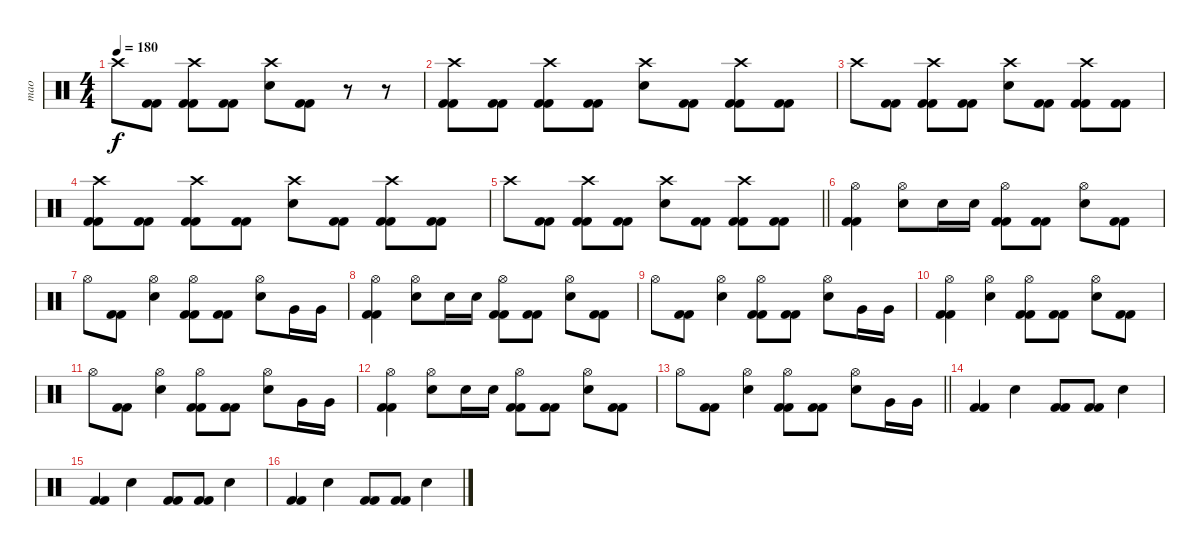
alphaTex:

\track ("mao" "mao") {instrument percussion}
\staff {score}
\articulation defaults
\ts (4 4)
\tempo 180
\clef neutral
\ks c "Crash high (hit)".8{dy f}
("Kick (hit) 2" "Kick (hit) 2").8 ("Crash high (hit)" "Kick (hit) 2" "Kick (hit) 2").8 ("Kick (hit) 2" "Kick (hit) 2").8 ("Crash high (hit)" "Electric Snare (hit)").8 ("Kick (hit) 2" "Kick (hit) 2").8 r.8 r.8 |
("Crash high (hit)" "Kick (hit) 2" "Kick (hit) 2").8 ("Kick (hit) 2" "Kick (hit) 2").8 ("Crash high (hit)" "Kick (hit) 2" "Kick (hit) 2").8 ("Kick (hit) 2" "Kick (hit) 2").8 ("Crash high (hit)" "Electric Snare (hit)").8 ("Kick (hit) 2" "Kick (hit) 2").8 ("Crash high (hit)" "Kick (hit) 2" "Kick (hit) 2").8 ("Kick (hit) 2" "Kick (hit) 2").8 |
"Crash high (hit)".8 ("Kick (hit) 2" "Kick (hit) 2").8 ("Crash high (hit)" "Kick (hit) 2" "Kick (hit) 2").8 ("Kick (hit) 2" "Kick (hit) 2").8 ("Crash high (hit)" "Electric Snare (hit)").8 ("Kick (hit) 2" "Kick (hit) 2").8 ("Crash high (hit)" "Kick (hit) 2" "Kick (hit) 2").8 ("Kick (hit) 2" "Kick (hit) 2").8 |
("Crash high (hit)" "Kick (hit) 2" "Kick (hit) 2").8 ("Kick (hit) 2" "Kick (hit) 2").8 ("Crash high (hit)" "Kick (hit) 2" "Kick (hit) 2").8 ("Kick (hit) 2" "Kick (hit) 2").8 ("Crash high (hit)" "Electric Snare (hit)").8 ("Kick (hit) 2" "Kick (hit) 2").8 ("Crash high (hit)" "Kick (hit) 2" "Kick (hit) 2").8 ("Kick (hit) 2" "Kick (hit) 2").8 |
\barLineRight lightlight "Crash high (hit)".8
("Kick (hit) 2" "Kick (hit) 2").8 ("Crash high (hit)" "Kick (hit) 2" "Kick (hit) 2").8 ("Kick (hit) 2" "Kick (hit) 2").8 ("Crash high (hit)" "Electric Snare (hit)").8 ("Kick (hit) 2" "Kick (hit) 2").8 ("Crash high (hit)" "Kick (hit) 2" "Kick (hit) 2").8 ("Kick (hit) 2" "Kick (hit) 2").8 |
("Hi-Hat (open)" "Kick (hit) 2" "Kick (hit) 2").4 ("Hi-Hat (open)" "Electric Snare (hit)").8 "Electric Snare (hit)".16 "Electric Snare (hit)".16 ("Hi-Hat (open)" "Kick (hit) 2" "Kick (hit) 2").8 ("Kick (hit) 2" "Kick (hit) 2").8 ("Hi-Hat (open)" "Electric Snare (hit)").8 ("Kick (hit) 2" "Kick (hit) 2").8 |
"Hi-Hat (open)".8 ("Kick (hit) 2" "Kick (hit) 2").8 ("Hi-Hat (open)" "Electric Snare (hit)").4 ("Hi-Hat (open)" "Kick (hit) 2" "Kick (hit) 2").8 ("Kick (hit) 2" "Kick (hit) 2").8 ("Hi-Hat (open)" "Electric Snare (hit)").8 "Very Low Tom (hit)".16 "Very Low Tom (hit)".16 |
("Hi-Hat (open)" "Kick (hit) 2" "Kick (hit) 2").4 ("Hi-Hat (open)" "Electric Snare (hit)").8 "Electric Snare (hit)".16 "Electric Snare (hit)".16 ("Hi-Hat (open)" "Kick (hit) 2" "Kick (hit) 2").8 ("Kick (hit) 2" "Kick (hit) 2").8 ("Hi-Hat (open)" "Electric Snare (hit)").8 ("Kick (hit) 2" "Kick (hit) 2").8 |
"Hi-Hat (open)".8 ("Kick (hit) 2" "Kick (hit) 2").8 ("Hi-Hat (open)" "Electric Snare (hit)").4 ("Hi-Hat (open)" "Kick (hit) 2" "Kick (hit) 2").8 ("Kick (hit) 2" "Kick (hit) 2").8 ("Hi-Hat (open)" "Electric Snare (hit)").8 "Very Low Tom (hit)".16 "Very Low Tom (hit)".16 |
("Hi-Hat (open)" "Kick (hit) 2" "Kick (hit) 2").4 ("Hi-Hat (open)" "Electric Snare (hit)").4 ("Hi-Hat (open)" "Kick (hit) 2" "Kick (hit) 2").8 ("Kick (hit) 2" "Kick (hit) 2").8 ("Hi-Hat (open)" "Electric Snare (hit)").8 ("Kick (hit) 2" "Kick (hit) 2").8 |
"Hi-Hat (open)".8 ("Kick (hit) 2" "Kick (hit) 2").8 ("Hi-Hat (open)" "Electric Snare (hit)").4 ("Hi-Hat (open)" "Kick (hit) 2" "Kick (hit) 2").8 ("Kick (hit) 2" "Kick (hit) 2").8 ("Hi-Hat (open)" "Electric Snare (hit)").8 "Very Low Tom (hit)".16 "Very Low Tom (hit)".16 |
("Hi-Hat (open)" "Kick (hit) 2" "Kick (hit) 2").4 ("Hi-Hat (open)" "Electric Snare (hit)").8 "Electric Snare (hit)".16 "Electric Snare (hit)".16 ("Hi-Hat (open)" "Kick (hit) 2" "Kick (hit) 2").8 ("Kick (hit) 2" "Kick (hit) 2").8 ("Hi-Hat (open)" "Electric Snare (hit)").8 ("Kick (hit) 2" "Kick (hit) 2").8 |
\barLineRight lightlight "Hi-Hat (open)".8
("Kick (hit) 2" "Kick (hit) 2").8 ("Hi-Hat (open)" "Electric Snare (hit)").4 ("Hi-Hat (open)" "Kick (hit) 2" "Kick (hit) 2").8 ("Kick (hit) 2" "Kick (hit) 2").8 ("Hi-Hat (open)" "Electric Snare (hit)").8 "Very Low Tom (hit)".16 "Very Low Tom (hit)".16 |
("Kick (hit) 2" "Kick (hit) 2").4 "Electric Snare (hit)".4 ("Kick (hit) 2" "Kick (hit) 2").8 ("Kick (hit) 2" "Kick (hit) 2").8 "Electric Snare (hit)".4 |
("Kick (hit) 2" "Kick (hit) 2").4 "Electric Snare (hit)".4 ("Kick (hit) 2" "Kick (hit) 2").8 ("Kick (hit) 2" "Kick (hit) 2").8 "Electric Snare (hit)".4 |
("Kick (hit) 2" "Kick (hit) 2").4 "Electric Snare (hit)".4 ("Kick (hit) 2" "Kick (hit) 2").8 ("Kick (hit) 2" "Kick (hit) 2").8 "Electric Snare (hit)".4
